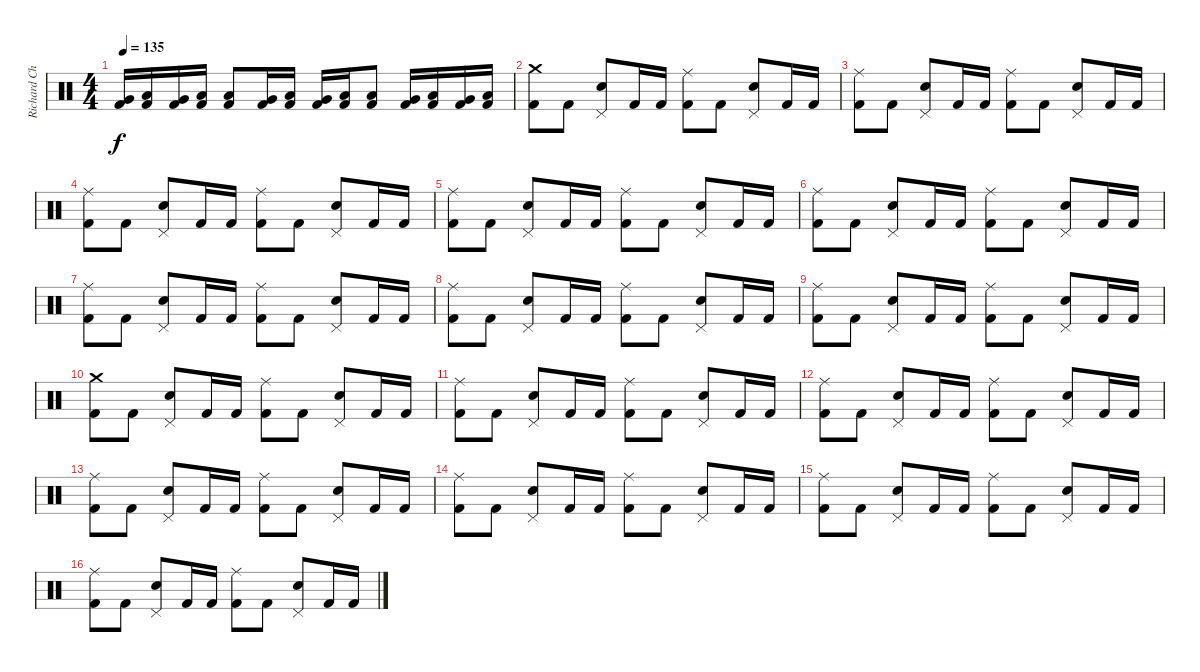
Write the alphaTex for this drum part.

\track ("Richard Christy" "Richard Ch") {instrument percussion}
\staff {score}
\articulation defaults
\ts (4 4)
\tempo 135
\clef neutral
\ks c
("Very Low Tom (hit)" "Kick (hit) 2").16{dy f} ("Low Tom (hit)" "Kick (hit) 2").16 ("Very Low Tom (hit)" "Kick (hit) 2").16 ("Low Tom (hit)" "Kick (hit) 2").16 ("Low Tom (hit)" "Kick (hit) 2").8 ("Very Low Tom (hit)" "Kick (hit) 2").16 ("Low Tom (hit)" "Kick (hit) 2").16 ("Very Low Tom (hit)" "Kick (hit) 2").16 ("Low Tom (hit)" "Kick (hit) 2").16 ("Low Tom (hit)" "Kick (hit) 2").8 ("Very Low Tom (hit)" "Kick (hit) 2").16 ("Low Tom (hit)" "Kick (hit) 2").16 ("Very Low Tom (hit)" "Kick (hit) 2").16 ("Low Tom (hit)" "Kick (hit) 2").16 |
("Crash medium (hit)" "Kick (hit) 2").8 "Kick (hit) 2".8 ("Snare (hit) 2" "Pedal Hi-Hat (hit)").8 "Kick (hit) 2".16 "Kick (hit) 2".16 ("Ride (middle)" "Kick (hit) 2").8 "Kick (hit) 2".8 ("Snare (hit) 2" "Pedal Hi-Hat (hit)").8 "Kick (hit) 2".16 "Kick (hit) 2".16 |
("Ride (middle)" "Kick (hit) 2").8 "Kick (hit) 2".8 ("Snare (hit) 2" "Pedal Hi-Hat (hit)").8 "Kick (hit) 2".16 "Kick (hit) 2".16 ("Ride (middle)" "Kick (hit) 2").8 "Kick (hit) 2".8 ("Snare (hit) 2" "Pedal Hi-Hat (hit)").8 "Kick (hit) 2".16 "Kick (hit) 2".16 |
("Ride (middle)" "Kick (hit) 2").8 "Kick (hit) 2".8 ("Snare (hit) 2" "Pedal Hi-Hat (hit)").8 "Kick (hit) 2".16 "Kick (hit) 2".16 ("Ride (middle)" "Kick (hit) 2").8 "Kick (hit) 2".8 ("Snare (hit) 2" "Pedal Hi-Hat (hit)").8 "Kick (hit) 2".16 "Kick (hit) 2".16 |
("Ride (middle)" "Kick (hit) 2").8 "Kick (hit) 2".8 ("Snare (hit) 2" "Pedal Hi-Hat (hit)").8 "Kick (hit) 2".16 "Kick (hit) 2".16 ("Ride (middle)" "Kick (hit) 2").8 "Kick (hit) 2".8 ("Snare (hit) 2" "Pedal Hi-Hat (hit)").8 "Kick (hit) 2".16 "Kick (hit) 2".16 |
("Ride (middle)" "Kick (hit) 2").8 "Kick (hit) 2".8 ("Snare (hit) 2" "Pedal Hi-Hat (hit)").8 "Kick (hit) 2".16 "Kick (hit) 2".16 ("Ride (middle)" "Kick (hit) 2").8 "Kick (hit) 2".8 ("Snare (hit) 2" "Pedal Hi-Hat (hit)").8 "Kick (hit) 2".16 "Kick (hit) 2".16 |
("Ride (middle)" "Kick (hit) 2").8 "Kick (hit) 2".8 ("Snare (hit) 2" "Pedal Hi-Hat (hit)").8 "Kick (hit) 2".16 "Kick (hit) 2".16 ("Ride (middle)" "Kick (hit) 2").8 "Kick (hit) 2".8 ("Snare (hit) 2" "Pedal Hi-Hat (hit)").8 "Kick (hit) 2".16 "Kick (hit) 2".16 |
("Ride (middle)" "Kick (hit) 2").8 "Kick (hit) 2".8 ("Snare (hit) 2" "Pedal Hi-Hat (hit)").8 "Kick (hit) 2".16 "Kick (hit) 2".16 ("Ride (middle)" "Kick (hit) 2").8 "Kick (hit) 2".8 ("Snare (hit) 2" "Pedal Hi-Hat (hit)").8 "Kick (hit) 2".16 "Kick (hit) 2".16 |
("Ride (middle)" "Kick (hit) 2").8 "Kick (hit) 2".8 ("Snare (hit) 2" "Pedal Hi-Hat (hit)").8 "Kick (hit) 2".16 "Kick (hit) 2".16 ("Ride (middle)" "Kick (hit) 2").8 "Kick (hit) 2".8 ("Snare (hit) 2" "Pedal Hi-Hat (hit)").8 "Kick (hit) 2".16 "Kick (hit) 2".16 |
("Crash medium (hit)" "Kick (hit) 2").8 "Kick (hit) 2".8 ("Snare (hit) 2" "Pedal Hi-Hat (hit)").8 "Kick (hit) 2".16 "Kick (hit) 2".16 ("Ride (middle)" "Kick (hit) 2").8 "Kick (hit) 2".8 ("Snare (hit) 2" "Pedal Hi-Hat (hit)").8 "Kick (hit) 2".16 "Kick (hit) 2".16 |
("Ride (middle)" "Kick (hit) 2").8 "Kick (hit) 2".8 ("Snare (hit) 2" "Pedal Hi-Hat (hit)").8 "Kick (hit) 2".16 "Kick (hit) 2".16 ("Ride (middle)" "Kick (hit) 2").8 "Kick (hit) 2".8 ("Snare (hit) 2" "Pedal Hi-Hat (hit)").8 "Kick (hit) 2".16 "Kick (hit) 2".16 |
("Ride (middle)" "Kick (hit) 2").8 "Kick (hit) 2".8 ("Snare (hit) 2" "Pedal Hi-Hat (hit)").8 "Kick (hit) 2".16 "Kick (hit) 2".16 ("Ride (middle)" "Kick (hit) 2").8 "Kick (hit) 2".8 ("Snare (hit) 2" "Pedal Hi-Hat (hit)").8 "Kick (hit) 2".16 "Kick (hit) 2".16 |
("Ride (middle)" "Kick (hit) 2").8 "Kick (hit) 2".8 ("Snare (hit) 2" "Pedal Hi-Hat (hit)").8 "Kick (hit) 2".16 "Kick (hit) 2".16 ("Ride (middle)" "Kick (hit) 2").8 "Kick (hit) 2".8 ("Snare (hit) 2" "Pedal Hi-Hat (hit)").8 "Kick (hit) 2".16 "Kick (hit) 2".16 |
("Ride (middle)" "Kick (hit) 2").8 "Kick (hit) 2".8 ("Snare (hit) 2" "Pedal Hi-Hat (hit)").8 "Kick (hit) 2".16 "Kick (hit) 2".16 ("Ride (middle)" "Kick (hit) 2").8 "Kick (hit) 2".8 ("Snare (hit) 2" "Pedal Hi-Hat (hit)").8 "Kick (hit) 2".16 "Kick (hit) 2".16 |
("Ride (middle)" "Kick (hit) 2").8 "Kick (hit) 2".8 ("Snare (hit) 2" "Pedal Hi-Hat (hit)").8 "Kick (hit) 2".16 "Kick (hit) 2".16 ("Ride (middle)" "Kick (hit) 2").8 "Kick (hit) 2".8 ("Snare (hit) 2" "Pedal Hi-Hat (hit)").8 "Kick (hit) 2".16 "Kick (hit) 2".16 |
("Ride (middle)" "Kick (hit) 2").8 "Kick (hit) 2".8 ("Snare (hit) 2" "Pedal Hi-Hat (hit)").8 "Kick (hit) 2".16 "Kick (hit) 2".16 ("Ride (middle)" "Kick (hit) 2").8 "Kick (hit) 2".8 ("Snare (hit) 2" "Pedal Hi-Hat (hit)").8 "Kick (hit) 2".16 "Kick (hit) 2".16
